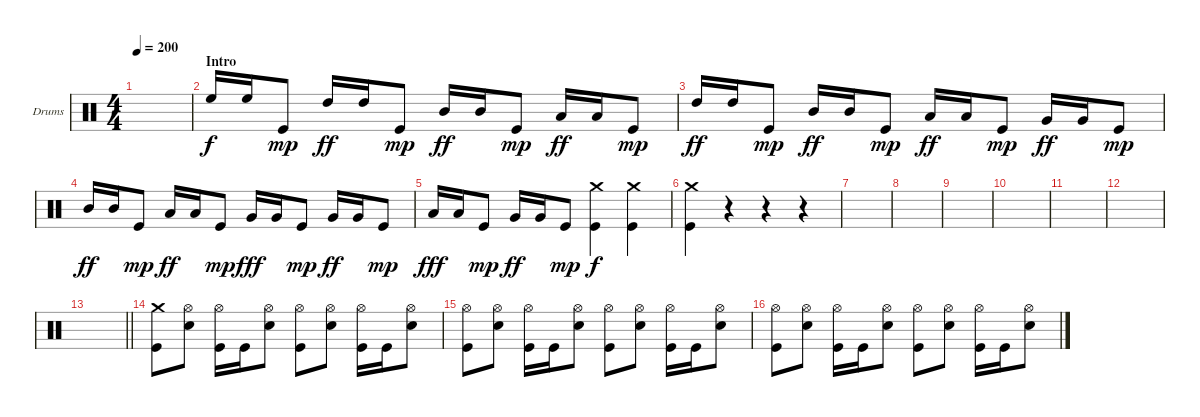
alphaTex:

\bracketExtendMode groupsimilarinstruments
\firstSystemTrackNameOrientation horizontal
\otherSystemsTrackNameOrientation horizontal
\track ("Drums" "Drums") {instrument percussion}
\staff {score}
\articulation defaults
\ts (4 4)
\beaming (8 2 2 2 2)
\tempo 200
\clef neutral
\ks c
|
\section ("" "Intro")
"High Floor Tom (hit)".16 "High Floor Tom (hit)".16 "Kick (hit)".8{dy mp} "High Tom (hit)".16{dy ff} "High Tom (hit)".16 "Kick (hit)".8{dy mp} "Mid Tom (hit)".16{dy ff} "Mid Tom (hit)".16 "Kick (hit)".8{dy mp} "Low Tom (hit)".16{dy ff} "Low Tom (hit)".16 "Kick (hit)".8{dy mp} |
"High Tom (hit)".16{dy ff} "High Tom (hit)".16 "Kick (hit)".8{dy mp} "Mid Tom (hit)".16{dy ff} "Mid Tom (hit)".16 "Kick (hit)".8{dy mp} "Low Tom (hit)".16{dy ff} "Low Tom (hit)".16 "Kick (hit)".8{dy mp} "Very Low Tom (hit)".16{dy ff} "Very Low Tom (hit)".16 "Kick (hit)".8{dy mp} |
"Mid Tom (hit)".16{dy ff} "Mid Tom (hit)".16 "Kick (hit)".8{dy mp} "Low Tom (hit)".16{dy ff} "Low Tom (hit)".16 "Kick (hit)".8{dy mp} "Very Low Tom (hit)".16{dy fff} "Very Low Tom (hit)".16 "Kick (hit)".8{dy mp} "Very Low Tom (hit)".16{dy ff} "Very Low Tom (hit)".16 "Kick (hit)".8{dy mp} |
"Low Tom (hit)".16{dy fff} "Low Tom (hit)".16 "Kick (hit)".8{dy mp} "Very Low Tom (hit)".16{dy ff} "Very Low Tom (hit)".16 "Kick (hit)".8{dy mp} ("Kick (hit)" "Crash medium (hit)").4{dy f} ("Kick (hit)" "Crash medium (hit)").4 |
("Kick (hit)" "Crash medium (hit)").4 r.4 r.4 r.4 |
|
|
|
|
|
|
\barLineRight lightlight
|
("Crash medium (hit)" "Kick (hit)").8 ("Hi-Hat (open)" "Snare (hit) 2").8 ("Hi-Hat (open)" "Kick (hit)").16 "Kick (hit)".16 ("Hi-Hat (open)" "Snare (hit) 2").8 ("Hi-Hat (open)" "Kick (hit)").8 ("Hi-Hat (open)" "Snare (hit) 2").8 ("Hi-Hat (open)" "Kick (hit)").16 "Kick (hit)".16 ("Hi-Hat (open)" "Snare (hit) 2").8 |
("Hi-Hat (open)" "Kick (hit)").8 ("Hi-Hat (open)" "Snare (hit) 2").8 ("Hi-Hat (open)" "Kick (hit)").16 "Kick (hit)".16 ("Hi-Hat (open)" "Snare (hit) 2").8 ("Hi-Hat (open)" "Kick (hit)").8 ("Hi-Hat (open)" "Snare (hit) 2").8 ("Hi-Hat (open)" "Kick (hit)").16 "Kick (hit)".16 ("Hi-Hat (open)" "Snare (hit) 2").8 |
("Hi-Hat (open)" "Kick (hit)").8 ("Hi-Hat (open)" "Snare (hit) 2").8 ("Hi-Hat (open)" "Kick (hit)").16 "Kick (hit)".16 ("Hi-Hat (open)" "Snare (hit) 2").8 ("Hi-Hat (open)" "Kick (hit)").8 ("Hi-Hat (open)" "Snare (hit) 2").8 ("Hi-Hat (open)" "Kick (hit)").16 "Kick (hit)".16 ("Hi-Hat (open)" "Snare (hit) 2").8
